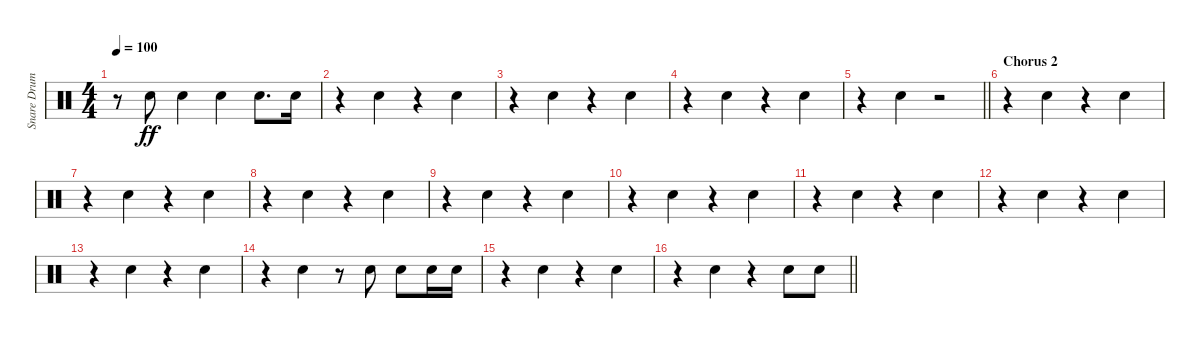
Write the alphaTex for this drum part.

\track ("Snare Drum" "Snare Drum") {instrument percussion}
\staff {score}
\articulation defaults
\ts (4 4)
\tempo 100
\clef neutral
\ks c
r.8{dy fff} "Electric Snare (hit)".8{dy ff} "Electric Snare (hit)".4 "Electric Snare (hit)".4 "Electric Snare (hit)".8{d} "Electric Snare (hit)".16 |
r.4{beam merge} "Electric Snare (hit)".4 r.4{beam merge} "Electric Snare (hit)".4 |
r.4{beam merge} "Electric Snare (hit)".4 r.4{beam merge} "Electric Snare (hit)".4 |
r.4{beam merge} "Electric Snare (hit)".4 r.4{beam merge} "Electric Snare (hit)".4 |
\barLineRight lightlight
r.4{beam merge} "Electric Snare (hit)".4 r.2 |
\section ("" "Chorus 2")
r.4{beam merge} "Electric Snare (hit)".4 r.4{beam merge} "Electric Snare (hit)".4 |
r.4{beam merge} "Electric Snare (hit)".4 r.4{beam merge} "Electric Snare (hit)".4 |
r.4{beam merge} "Electric Snare (hit)".4 r.4{beam merge} "Electric Snare (hit)".4 |
r.4{beam merge} "Electric Snare (hit)".4 r.4{beam merge} "Electric Snare (hit)".4 |
r.4{beam merge} "Electric Snare (hit)".4 r.4{beam merge} "Electric Snare (hit)".4 |
r.4{beam merge} "Electric Snare (hit)".4 r.4{beam merge} "Electric Snare (hit)".4 |
r.4{beam merge} "Electric Snare (hit)".4 r.4{beam merge} "Electric Snare (hit)".4 |
r.4{beam merge} "Electric Snare (hit)".4 r.4{beam merge} "Electric Snare (hit)".4 |
r.4{beam merge} "Electric Snare (hit)".4 r.8 "Electric Snare (hit)".8 "Electric Snare (hit)".8 "Electric Snare (hit)".16 "Electric Snare (hit)".16 |
r.4{beam merge} "Electric Snare (hit)".4 r.4{beam merge} "Electric Snare (hit)".4 |
\barLineRight lightlight
r.4{beam merge} "Electric Snare (hit)".4 r.4{beam merge} "Electric Snare (hit)".8 "Electric Snare (hit)".8
